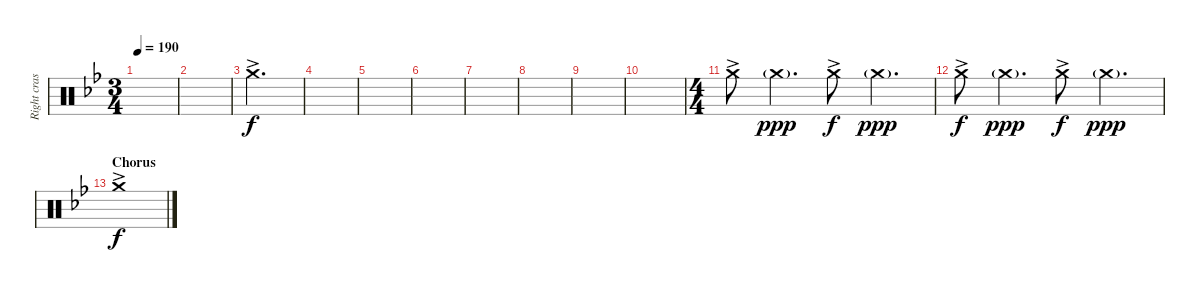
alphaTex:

\track ("Right crash" "Right cras") {instrument percussion}
\staff {score}
\articulation defaults
\ts (3 4)
\tempo 190
\clef neutral
\ks bb
|
|
"Crash medium (hit)"{ac}.2{d} |
|
|
|
|
|
|
|
\ts (4 4)
"Crash medium (hit)"{ac}.8 "Crash medium (hit)"{g}.4{d dy ppp} "Crash medium (hit)"{ac}.8{dy f} "Crash medium (hit)"{g}.4{d dy ppp} |
"Crash medium (hit)"{ac}.8{dy f} "Crash medium (hit)"{g}.4{d dy ppp} "Crash medium (hit)"{ac}.8{dy f} "Crash medium (hit)"{g}.4{d dy ppp} |
\section ("" "Chorus")
"Crash medium (hit)"{ac}.1{dy f}
